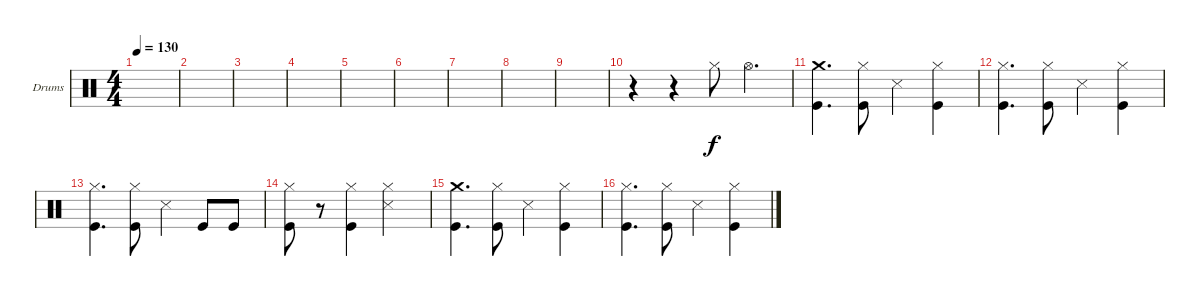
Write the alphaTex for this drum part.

\defaultSystemsLayout 4
\bracketExtendMode groupsimilarinstruments
\firstSystemTrackNameOrientation horizontal
\otherSystemsTrackNameOrientation horizontal
\track ("Drumkit" "Drums") {instrument percussion}
\staff {score}
\articulation defaults
\ts (4 4)
\tempo 130
\clef neutral
\ks c
|
|
|
|
|
|
|
|
|
r.4 r.4 "Hi-Hat (closed)".8 "Hi-Hat (open)".4{d} |
("Kick (hit)" "Crash medium (hit)").4{d} ("Kick (hit)" "Hi-Hat (closed)").8 "Snare (side stick) 3".4 ("Kick (hit)" "Hi-Hat (closed)").4 |
("Kick (hit)" "Hi-Hat (closed)").4{d} ("Kick (hit)" "Hi-Hat (closed)").8 "Snare (side stick) 3".4 ("Kick (hit)" "Hi-Hat (closed)").4 |
("Kick (hit)" "Hi-Hat (closed)").4{d} ("Kick (hit)" "Hi-Hat (closed)").8 "Snare (side stick) 3".4 "Kick (hit)".8 "Kick (hit)".8 |
("Kick (hit)" "Hi-Hat (closed)").8 r.8 ("Kick (hit)" "Hi-Hat (closed)").4 ("Snare (side stick) 3" "Hi-Hat (closed)").2 |
("Kick (hit)" "Crash medium (hit)").4{d} ("Kick (hit)" "Hi-Hat (closed)").8 "Snare (side stick) 3".4 ("Kick (hit)" "Hi-Hat (closed)").4 |
("Kick (hit)" "Hi-Hat (closed)").4{d} ("Kick (hit)" "Hi-Hat (closed)").8 "Snare (side stick) 3".4 ("Kick (hit)" "Hi-Hat (closed)").4
